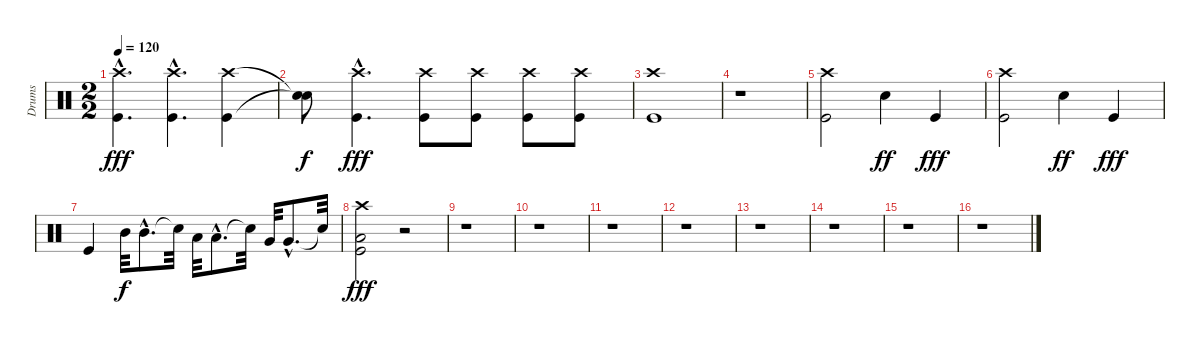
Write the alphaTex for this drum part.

\track ("Drums" "Drums") {instrument percussion}
\staff {score}
\articulation defaults
\ts (2 2)
\tempo 120
\clef neutral
\ks c
("Crash high (hit)"{hac} "Kick (hit)"{hac}).4{d dy fff} ("Crash high (hit)"{hac} "Kick (hit)"{hac}).4{d} ("Crash high (hit)" "Kick (hit)").4 |
("Snare (hit)"{t} "Snare (hit)"{t}).8{dy f} ("Crash high (hit)"{hac} "Kick (hit)"{hac}).4{d dy fff} ("Crash high (hit)" "Kick (hit)").8 ("Crash high (hit)" "Kick (hit)").8 ("Crash high (hit)" "Kick (hit)").8 ("Crash high (hit)" "Kick (hit)").8 |
("Crash high (hit)" "Kick (hit)").1 |
r.1 |
("Crash high (hit)" "Kick (hit)").2 "Electric Snare (hit)".4{dy ff} "Kick (hit)".4{dy fff} |
("Crash high (hit)" "Kick (hit)").2 "Electric Snare (hit)".4{dy ff} "Kick (hit)".4{dy fff} |
"Kick (hit)".4{volume 13} "Mid Tom (hit)".32{dy f} "Mid Tom (hit)"{hac}.8{d} "Snare (hit)"{t}.32 "Low Tom (hit)".32 "Low Tom (hit)"{hac}.8{d} "Snare (hit)"{t}.32 "Very Low Tom (hit)".32 "Very Low Tom (hit)"{hac}.8{d} "Snare (hit)"{t}.32 |
("Crash high (hit)" "Low Floor Tom (hit)" "Kick (hit)").2{dy fff} r.2 |
r.1 |
r.1 |
r.1 |
r.1 |
r.1 |
r.1 |
r.1 |
r.1
